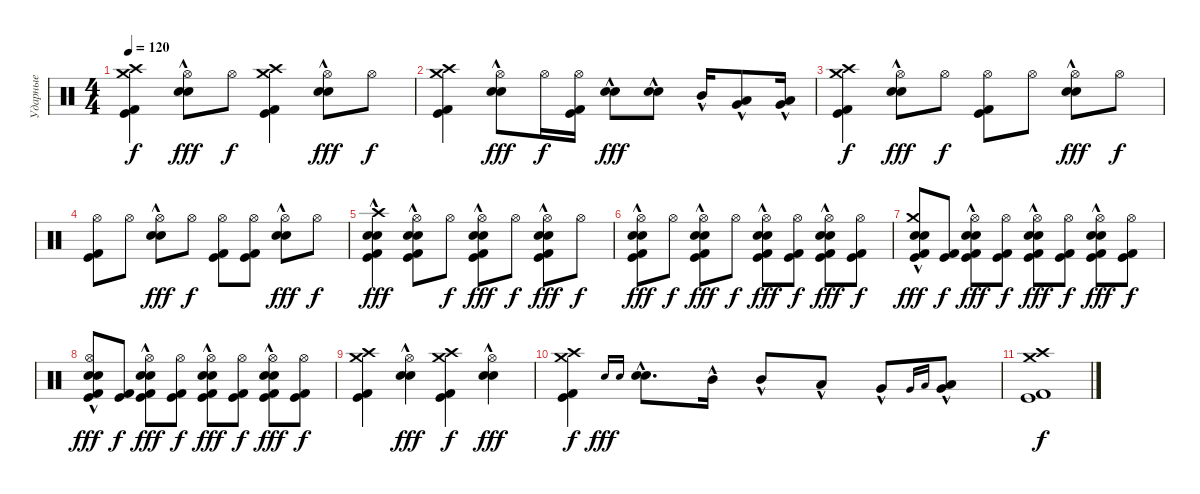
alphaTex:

\track ("Ударные" "Ударные") {instrument percussion}
\staff {score}
\articulation defaults
\ts (4 4)
\tempo 120
\clef neutral
\ks c
("Crash high (hit)" "Kick (hit)" "Kick (hit) 2" "Crash medium (hit)").4{dy f} ("Hi-Hat (open)" "Snare (hit) 2"{hac} "Electric Snare (hit)"{hac}).8{dy fff} "Hi-Hat (open)".8{dy f} ("Crash high (hit)" "Kick (hit)" "Kick (hit) 2" "Crash medium (hit)").4 ("Hi-Hat (open)" "Snare (hit) 2"{hac} "Electric Snare (hit)"{hac}).8{dy fff} "Hi-Hat (open)".8{dy f} |
("Crash high (hit)" "Kick (hit)" "Kick (hit) 2" "Crash medium (hit)").4 ("Hi-Hat (open)" "Snare (hit) 2"{hac} "Electric Snare (hit)"{hac}).8{dy fff} "Hi-Hat (open)".16{dy f} ("Hi-Hat (open)" "Kick (hit)" "Kick (hit) 2").16 ("Snare (hit) 2"{hac} "Electric Snare (hit)"{hac}).8{dy fff} ("Snare (hit) 2"{hac} "Electric Snare (hit)"{hac}).8 "Mid Tom (hit)"{hac}.16 ("Low Tom (hit)"{hac} "Very Low Tom (hit)"{hac}).8 ("Low Floor Tom (hit)"{hac} "Very Low Tom (hit)"{hac}).16 |
("Crash high (hit)" "Kick (hit)" "Kick (hit) 2" "Crash medium (hit)").4{dy f} ("Hi-Hat (open)" "Snare (hit) 2"{hac} "Electric Snare (hit)"{hac}).8{dy fff} "Hi-Hat (open)".8{dy f} ("Hi-Hat (open)" "Kick (hit)" "Kick (hit) 2").8 "Hi-Hat (open)".8 ("Hi-Hat (open)" "Snare (hit) 2"{hac} "Electric Snare (hit)"{hac}).8{dy fff} "Hi-Hat (open)".8{dy f} |
("Hi-Hat (open)" "Kick (hit)" "Kick (hit) 2").8 "Hi-Hat (open)".8 ("Hi-Hat (open)" "Snare (hit) 2"{hac} "Electric Snare (hit)"{hac}).8{dy fff} "Hi-Hat (open)".8{dy f} ("Hi-Hat (open)" "Kick (hit)" "Kick (hit) 2").8 ("Hi-Hat (open)" "Kick (hit)" "Kick (hit) 2").8 ("Hi-Hat (open)" "Snare (hit) 2"{hac} "Electric Snare (hit)"{hac}).8{dy fff} "Hi-Hat (open)".8{dy f} |
("Crash high (hit)" "Kick (hit)" "Kick (hit) 2" "Snare (hit) 2"{hac} "Electric Snare (hit)"{hac}).4{dy fff} ("Hi-Hat (open)" "Kick (hit)" "Kick (hit) 2" "Snare (hit) 2"{hac} "Electric Snare (hit)"{hac}).8 "Hi-Hat (open)".8{dy f} ("Hi-Hat (open)" "Kick (hit)" "Kick (hit) 2" "Snare (hit) 2"{hac} "Electric Snare (hit)"{hac}).8{dy fff} "Hi-Hat (open)".8{dy f} ("Hi-Hat (open)" "Kick (hit)" "Kick (hit) 2" "Snare (hit) 2"{hac} "Electric Snare (hit)"{hac}).8{dy fff} "Hi-Hat (open)".8{dy f} |
("Hi-Hat (open)" "Kick (hit)" "Kick (hit) 2" "Snare (hit) 2"{hac} "Electric Snare (hit)"{hac}).8{dy fff} "Hi-Hat (open)".8{dy f} ("Hi-Hat (open)" "Kick (hit)" "Kick (hit) 2" "Snare (hit) 2"{hac} "Electric Snare (hit)"{hac}).8{dy fff} "Hi-Hat (open)".8{dy f} ("Hi-Hat (open)" "Kick (hit)" "Kick (hit) 2" "Snare (hit) 2"{hac} "Electric Snare (hit)"{hac}).8{dy fff} ("Hi-Hat (open)" "Kick (hit)" "Kick (hit) 2").8{dy f} ("Hi-Hat (open)" "Kick (hit)" "Kick (hit) 2" "Snare (hit) 2"{hac} "Electric Snare (hit)"{hac}).8{dy fff} ("Hi-Hat (open)" "Kick (hit)" "Kick (hit) 2").8{dy f} |
("Crash medium (hit)" "Kick (hit)" "Kick (hit) 2" "Snare (hit) 2"{hac} "Electric Snare (hit)"{hac}).8{dy fff} ("Kick (hit)" "Kick (hit) 2").8{dy f} ("Hi-Hat (open)" "Kick (hit)" "Kick (hit) 2" "Snare (hit) 2"{hac} "Electric Snare (hit)"{hac}).8{dy fff} ("Hi-Hat (open)" "Kick (hit)" "Kick (hit) 2").8{dy f} ("Hi-Hat (open)" "Kick (hit)" "Kick (hit) 2" "Snare (hit) 2"{hac} "Electric Snare (hit)"{hac}).8{dy fff} ("Hi-Hat (open)" "Kick (hit)" "Kick (hit) 2").8{dy f} ("Hi-Hat (open)" "Kick (hit)" "Kick (hit) 2" "Snare (hit) 2"{hac} "Electric Snare (hit)"{hac}).8{dy fff} ("Hi-Hat (open)" "Kick (hit)" "Kick (hit) 2").8{dy f} |
("Hi-Hat (open)" "Kick (hit)" "Kick (hit) 2" "Snare (hit) 2"{hac} "Electric Snare (hit)"{hac}).8{dy fff} ("Kick (hit)" "Kick (hit) 2").8{dy f} ("Hi-Hat (open)" "Kick (hit)" "Kick (hit) 2" "Snare (hit) 2"{hac} "Electric Snare (hit)"{hac}).8{dy fff} ("Hi-Hat (open)" "Kick (hit)" "Kick (hit) 2").8{dy f} ("Hi-Hat (open)" "Kick (hit)" "Kick (hit) 2" "Snare (hit) 2"{hac} "Electric Snare (hit)"{hac}).8{dy fff} ("Hi-Hat (open)" "Kick (hit)" "Kick (hit) 2").8{dy f} ("Hi-Hat (open)" "Kick (hit)" "Kick (hit) 2" "Snare (hit) 2"{hac} "Electric Snare (hit)"{hac}).8{dy fff} ("Hi-Hat (open)" "Kick (hit)" "Kick (hit) 2").8{dy f} |
("Crash high (hit)" "Kick (hit)" "Kick (hit) 2" "Crash medium (hit)").4 ("Hi-Hat (open)" "Snare (hit) 2"{hac} "Electric Snare (hit)"{hac}).4{dy fff} ("Crash high (hit)" "Kick (hit)" "Kick (hit) 2" "Crash medium (hit)").4{dy f} ("Hi-Hat (open)" "Snare (hit) 2"{hac} "Electric Snare (hit)"{hac}).4{dy fff} |
("Crash high (hit)" "Kick (hit)" "Kick (hit) 2" "Crash medium (hit)").4{dy f} "Snare (hit) 2".16{gr onbeat dy fff} "Electric Snare (hit)".16{gr onbeat} ("Snare (hit) 2"{hac} "Electric Snare (hit)"{hac}).8{d} "Mid Tom (hit)"{hac}.16 "Mid Tom (hit)"{hac}.8 "Low Tom (hit)"{hac}.8 "Very Low Tom (hit)"{hac}.8 "Very Low Tom (hit)".16{gr onbeat} "Low Floor Tom (hit)".16{gr onbeat} ("Very Low Tom (hit)"{hac} "Low Floor Tom (hit)"{hac}).8 |
("Crash high (hit)" "Kick (hit)" "Kick (hit) 2" "Crash medium (hit)").1{dy f}
